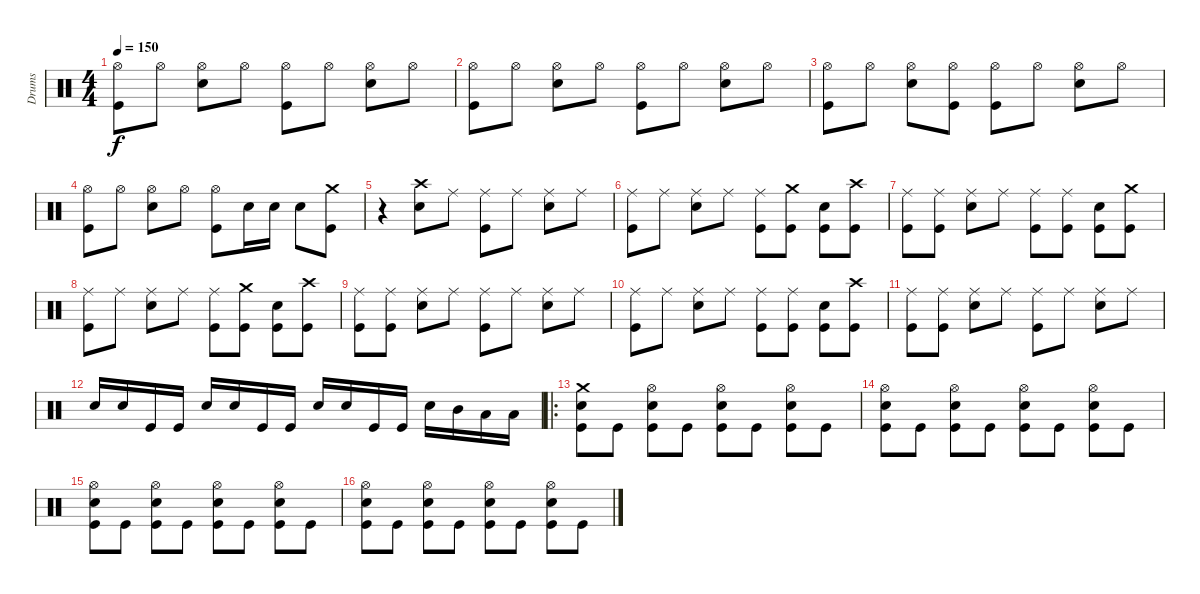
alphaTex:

\track ("Drums" "Drums") {instrument percussion}
\staff {score}
\articulation defaults
\ts (4 4)
\tempo 150
\clef neutral
\ks c
("Hi-Hat (open)" "Kick (hit)").8{dy f} "Hi-Hat (open)".8 ("Hi-Hat (open)" "Snare (hit) 2").8 "Hi-Hat (open)".8 ("Hi-Hat (open)" "Kick (hit)").8 "Hi-Hat (open)".8 ("Hi-Hat (open)" "Snare (hit) 2").8 "Hi-Hat (open)".8 |
("Hi-Hat (open)" "Kick (hit)").8 "Hi-Hat (open)".8 ("Hi-Hat (open)" "Snare (hit) 2").8 "Hi-Hat (open)".8 ("Hi-Hat (open)" "Kick (hit)").8 "Hi-Hat (open)".8 ("Hi-Hat (open)" "Snare (hit) 2").8 "Hi-Hat (open)".8 |
("Hi-Hat (open)" "Kick (hit)").8 "Hi-Hat (open)".8 ("Hi-Hat (open)" "Snare (hit) 2").8 ("Hi-Hat (open)" "Kick (hit)").8 ("Hi-Hat (open)" "Kick (hit)").8 "Hi-Hat (open)".8 ("Hi-Hat (open)" "Snare (hit) 2").8 "Hi-Hat (open)".8 |
("Hi-Hat (open)" "Kick (hit)").8 "Hi-Hat (open)".8 ("Hi-Hat (open)" "Snare (hit) 2").8 "Hi-Hat (open)".8 ("Hi-Hat (open)" "Kick (hit)").8 "Snare (hit) 2".16 "Snare (hit) 2".16 "Snare (hit) 2".8 ("Crash medium (hit)" "Kick (hit)").8 |
r.4 ("Crash high (hit)" "Snare (hit) 2").8 "Ride (middle)".8 ("Ride (middle)" "Kick (hit)").8 "Ride (middle)".8 ("Ride (middle)" "Snare (hit) 2").8 "Ride (middle)".8 |
("Ride (middle)" "Kick (hit)").8 "Ride (middle)".8 ("Ride (middle)" "Snare (hit) 2").8 "Ride (middle)".8 ("Ride (middle)" "Kick (hit)").8 ("Crash medium (hit)" "Kick (hit)").8 ("Snare (hit) 2" "Kick (hit)").8 ("Crash high (hit)" "Kick (hit)").8 |
("Ride (middle)" "Kick (hit)").8 ("Ride (middle)" "Kick (hit)").8 ("Ride (middle)" "Snare (hit) 2").8 "Ride (middle)".8 ("Ride (middle)" "Kick (hit)").8 ("Ride (middle)" "Kick (hit)").8 ("Snare (hit) 2" "Kick (hit)").8 ("Crash medium (hit)" "Kick (hit)").8 |
("Ride (middle)" "Kick (hit)").8 "Ride (middle)".8 ("Ride (middle)" "Snare (hit) 2").8 "Ride (middle)".8 ("Ride (middle)" "Kick (hit)").8 ("Crash medium (hit)" "Kick (hit)").8 ("Snare (hit) 2" "Kick (hit)").8 ("Crash high (hit)" "Kick (hit)").8 |
("Ride (middle)" "Kick (hit)").8 ("Ride (middle)" "Kick (hit)").8 ("Ride (middle)" "Snare (hit) 2").8 "Ride (middle)".8 ("Ride (middle)" "Kick (hit)").8 "Ride (middle)".8 ("Ride (middle)" "Snare (hit) 2").8 "Ride (middle)".8 |
("Ride (middle)" "Kick (hit)").8 "Ride (middle)".8 ("Ride (middle)" "Snare (hit) 2").8 "Ride (middle)".8 ("Ride (middle)" "Kick (hit)").8 ("Ride (middle)" "Kick (hit)").8 ("Snare (hit) 2" "Kick (hit)").8 ("Crash high (hit)" "Kick (hit)").8 |
("Ride (middle)" "Kick (hit)").8 ("Ride (middle)" "Kick (hit)").8 ("Ride (middle)" "Snare (hit) 2").8 "Ride (middle)".8 ("Ride (middle)" "Kick (hit)").8 "Ride (middle)".8 ("Ride (middle)" "Snare (hit) 2").8 "Ride (middle)".8 |
"Snare (hit) 2".16 "Snare (hit) 2".16 "Kick (hit)".16 "Kick (hit)".16 "Snare (hit) 2".16 "Snare (hit) 2".16 "Kick (hit)".16 "Kick (hit)".16 "Snare (hit) 2".16 "Snare (hit) 2".16 "Kick (hit)".16 "Kick (hit)".16 "Snare (hit) 2".16 "Mid Tom (hit)".16 "Low Tom (hit)".16 "Low Floor Tom (hit)".16 |
\ro
("Crash medium (hit)" "Snare (hit) 2" "Kick (hit)").8 "Kick (hit)".8 ("Hi-Hat (open)" "Snare (hit) 2" "Kick (hit)").8 "Kick (hit)".8 ("Hi-Hat (open)" "Snare (hit) 2" "Kick (hit)").8 "Kick (hit)".8 ("Hi-Hat (open)" "Snare (hit) 2" "Kick (hit)").8 "Kick (hit)".8 |
("Hi-Hat (open)" "Snare (hit) 2" "Kick (hit)").8 "Kick (hit)".8 ("Hi-Hat (open)" "Snare (hit) 2" "Kick (hit)").8 "Kick (hit)".8 ("Hi-Hat (open)" "Snare (hit) 2" "Kick (hit)").8 "Kick (hit)".8 ("Hi-Hat (open)" "Snare (hit) 2" "Kick (hit)").8 "Kick (hit)".8 |
("Hi-Hat (open)" "Snare (hit) 2" "Kick (hit)").8 "Kick (hit)".8 ("Hi-Hat (open)" "Snare (hit) 2" "Kick (hit)").8 "Kick (hit)".8 ("Hi-Hat (open)" "Snare (hit) 2" "Kick (hit)").8 "Kick (hit)".8 ("Hi-Hat (open)" "Snare (hit) 2" "Kick (hit)").8 "Kick (hit)".8 |
("Hi-Hat (open)" "Snare (hit) 2" "Kick (hit)").8 "Kick (hit)".8 ("Hi-Hat (open)" "Snare (hit) 2" "Kick (hit)").8 "Kick (hit)".8 ("Hi-Hat (open)" "Snare (hit) 2" "Kick (hit)").8 "Kick (hit)".8 ("Hi-Hat (open)" "Snare (hit) 2" "Kick (hit)").8 "Kick (hit)".8
